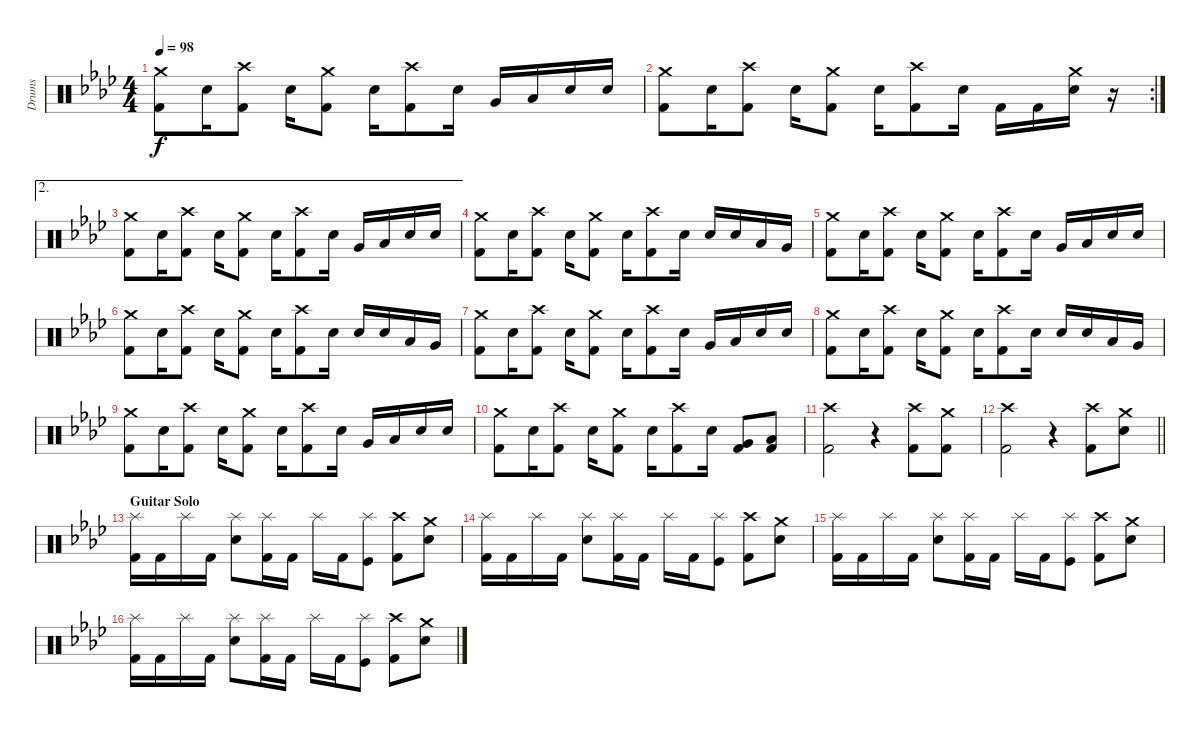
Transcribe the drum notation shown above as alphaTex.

\track ("Drums" "Drums") {instrument percussion}
\staff {score}
\articulation defaults
\ts (4 4)
\tempo 98
\clef neutral
\ks ab
("Crash medium (hit)" "Kick (hit) 2").8{dy f} "Snare (hit) 2".16 ("Crash high (hit)" "Kick (hit) 2").8 "Snare (hit) 2".16 ("Crash medium (hit)" "Kick (hit) 2").8 "Snare (hit) 2".16 ("Crash high (hit)" "Kick (hit) 2").8 "Snare (hit) 2".16 "Very Low Tom (hit)".16 "Low Tom (hit)".16 "Snare (hit) 2".16 "Snare (hit) 2".16 |
\rc 2
("Crash medium (hit)" "Kick (hit) 2").8 "Snare (hit) 2".16 ("Crash high (hit)" "Kick (hit) 2").8 "Snare (hit) 2".16 ("Crash medium (hit)" "Kick (hit) 2").8 "Snare (hit) 2".16 ("Crash high (hit)" "Kick (hit) 2").8 "Snare (hit) 2".16 "Kick (hit) 2".16 "Kick (hit) 2".16 ("Crash medium (hit)" "Snare (hit) 2").16 r.16 |
\ae 2
("Crash medium (hit)" "Kick (hit) 2").8 "Snare (hit) 2".16 ("Crash high (hit)" "Kick (hit) 2").8 "Snare (hit) 2".16 ("Crash medium (hit)" "Kick (hit) 2").8 "Snare (hit) 2".16 ("Crash high (hit)" "Kick (hit) 2").8 "Snare (hit) 2".16 "Very Low Tom (hit)".16 "Low Tom (hit)".16 "Snare (hit) 2".16 "Snare (hit) 2".16 |
("Crash medium (hit)" "Kick (hit) 2").8 "Snare (hit) 2".16 ("Crash high (hit)" "Kick (hit) 2").8 "Snare (hit) 2".16 ("Crash medium (hit)" "Kick (hit) 2").8 "Snare (hit) 2".16 ("Crash high (hit)" "Kick (hit) 2").8 "Snare (hit) 2".16 "Snare (hit) 2".16 "Snare (hit) 2".16 "Low Tom (hit)".16 "Very Low Tom (hit)".16 |
("Crash medium (hit)" "Kick (hit) 2").8 "Snare (hit) 2".16 ("Crash high (hit)" "Kick (hit) 2").8 "Snare (hit) 2".16 ("Crash medium (hit)" "Kick (hit) 2").8 "Snare (hit) 2".16 ("Crash high (hit)" "Kick (hit) 2").8 "Snare (hit) 2".16 "Very Low Tom (hit)".16 "Low Tom (hit)".16 "Snare (hit) 2".16 "Snare (hit) 2".16 |
("Crash medium (hit)" "Kick (hit) 2").8 "Snare (hit) 2".16 ("Crash high (hit)" "Kick (hit) 2").8 "Snare (hit) 2".16 ("Crash medium (hit)" "Kick (hit) 2").8 "Snare (hit) 2".16 ("Crash high (hit)" "Kick (hit) 2").8 "Snare (hit) 2".16 "Snare (hit) 2".16 "Snare (hit) 2".16 "Low Tom (hit)".16 "Very Low Tom (hit)".16 |
("Crash medium (hit)" "Kick (hit) 2").8 "Snare (hit) 2".16 ("Crash high (hit)" "Kick (hit) 2").8 "Snare (hit) 2".16 ("Crash medium (hit)" "Kick (hit) 2").8 "Snare (hit) 2".16 ("Crash high (hit)" "Kick (hit) 2").8 "Snare (hit) 2".16 "Very Low Tom (hit)".16 "Low Tom (hit)".16 "Snare (hit) 2".16 "Snare (hit) 2".16 |
("Crash medium (hit)" "Kick (hit) 2").8 "Snare (hit) 2".16 ("Crash high (hit)" "Kick (hit) 2").8 "Snare (hit) 2".16 ("Crash medium (hit)" "Kick (hit) 2").8 "Snare (hit) 2".16 ("Crash high (hit)" "Kick (hit) 2").8 "Snare (hit) 2".16 "Snare (hit) 2".16 "Snare (hit) 2".16 "Low Tom (hit)".16 "Very Low Tom (hit)".16 |
("Crash medium (hit)" "Kick (hit) 2").8 "Snare (hit) 2".16 ("Crash high (hit)" "Kick (hit) 2").8 "Snare (hit) 2".16 ("Crash medium (hit)" "Kick (hit) 2").8 "Snare (hit) 2".16 ("Crash high (hit)" "Kick (hit) 2").8 "Snare (hit) 2".16 "Very Low Tom (hit)".16 "Low Tom (hit)".16 "Snare (hit) 2".16 "Snare (hit) 2".16 |
("Crash medium (hit)" "Kick (hit) 2").8 "Snare (hit) 2".16 ("Crash high (hit)" "Kick (hit) 2").8 "Snare (hit) 2".16 ("Crash medium (hit)" "Kick (hit) 2").8 "Snare (hit) 2".16 ("Crash high (hit)" "Kick (hit) 2").8 "Snare (hit) 2".16 ("Very Low Tom (hit)" "Kick (hit) 2").8 ("Low Tom (hit)" "Kick (hit) 2").8 |
("Crash high (hit)" "Kick (hit) 2").2 r.4 ("Crash high (hit)" "Kick (hit) 2").8 ("Crash medium (hit)" "Kick (hit) 2").8 |
\barLineRight lightlight
("Crash high (hit)" "Kick (hit) 2").2 r.4 ("Crash high (hit)" "Kick (hit) 2").8 ("Crash medium (hit)" "Snare (hit) 2").8 |
\section ("" "Guitar Solo")
("Splash (hit)" "Kick (hit) 2").16 "Kick (hit) 2".16 "Splash (hit)".16 "Kick (hit) 2".16 ("Splash (hit)" "Snare (hit) 2").8 ("Splash (hit)" "Kick (hit) 2").16 "Kick (hit) 2".16 "Splash (hit)".16 "Kick (hit) 2".16 ("Splash (hit)" "Kick (hit)").8 ("Crash high (hit)" "Kick (hit) 2").8 ("Crash medium (hit)" "Snare (hit) 2").8 |
("Splash (hit)" "Kick (hit) 2").16 "Kick (hit) 2".16 "Splash (hit)".16 "Kick (hit) 2".16 ("Splash (hit)" "Snare (hit) 2").8 ("Splash (hit)" "Kick (hit) 2").16 "Kick (hit) 2".16 "Splash (hit)".16 "Kick (hit) 2".16 ("Splash (hit)" "Kick (hit)").8 ("Crash high (hit)" "Kick (hit) 2").8 ("Crash medium (hit)" "Snare (hit) 2").8 |
("Splash (hit)" "Kick (hit) 2").16 "Kick (hit) 2".16 "Splash (hit)".16 "Kick (hit) 2".16 ("Splash (hit)" "Snare (hit) 2").8 ("Splash (hit)" "Kick (hit) 2").16 "Kick (hit) 2".16 "Splash (hit)".16 "Kick (hit) 2".16 ("Splash (hit)" "Kick (hit)").8 ("Crash high (hit)" "Kick (hit) 2").8 ("Crash medium (hit)" "Snare (hit) 2").8 |
("Splash (hit)" "Kick (hit) 2").16 "Kick (hit) 2".16 "Splash (hit)".16 "Kick (hit) 2".16 ("Splash (hit)" "Snare (hit) 2").8 ("Splash (hit)" "Kick (hit) 2").16 "Kick (hit) 2".16 "Splash (hit)".16 "Kick (hit) 2".16 ("Splash (hit)" "Kick (hit)").8 ("Crash high (hit)" "Kick (hit) 2").8 ("Crash medium (hit)" "Snare (hit) 2").8
